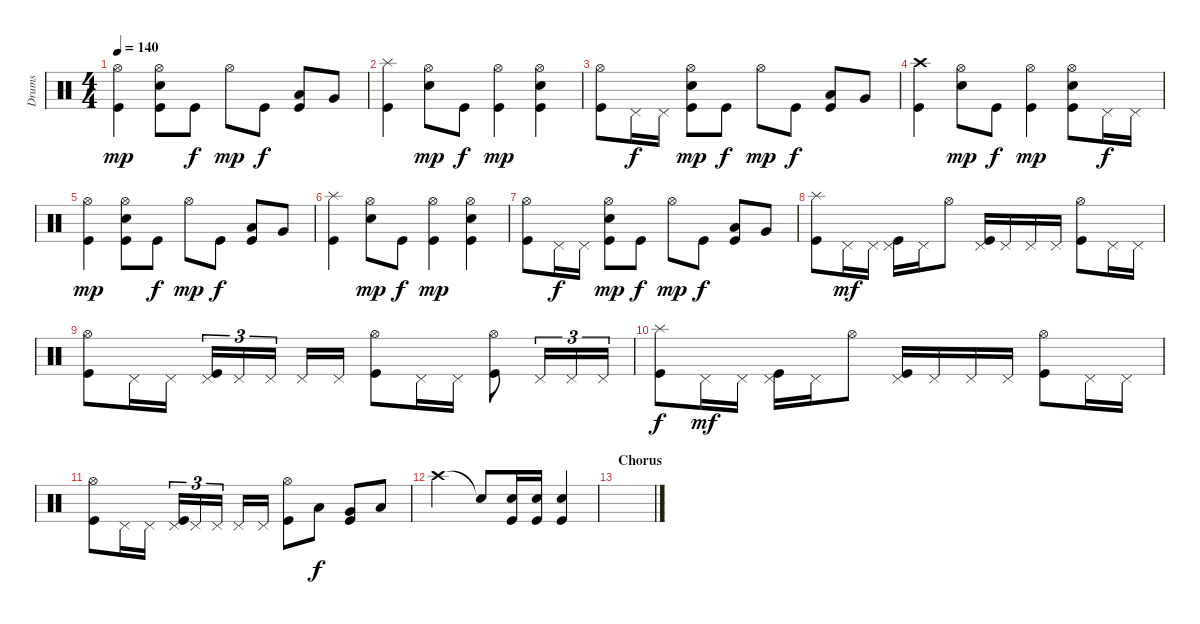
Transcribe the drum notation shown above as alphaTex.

\track ("Drums" "Drums") {instrument percussion}
\staff {score}
\articulation defaults
\ts (4 4)
\tempo 140
\clef neutral
\ks c
("Hi-Hat (open)" "Kick (hit)").4{dy mp} ("Hi-Hat (open)" "Electric Snare (hit)" "Kick (hit)").8 "Kick (hit)".8{dy f} "Hi-Hat (open)".8{dy mp} "Kick (hit)".8{dy f} ("Low Tom (hit)" "Kick (hit)").8 "Very Low Tom (hit)".8 |
("Splash (hit)" "Kick (hit)").4 ("Hi-Hat (open)" "Electric Snare (hit)").8{dy mp} "Kick (hit)".8{dy f} ("Hi-Hat (open)" "Kick (hit)").4{dy mp} ("Hi-Hat (open)" "Electric Snare (hit)" "Kick (hit)").4 |
("Hi-Hat (open)" "Kick (hit)").8 "Pedal Hi-Hat (hit)".16{dy f} "Pedal Hi-Hat (hit)".16 ("Hi-Hat (open)" "Electric Snare (hit)" "Kick (hit)").8{dy mp} "Kick (hit)".8{dy f} "Hi-Hat (open)".8{dy mp} "Kick (hit)".8{dy f} ("Low Tom (hit)" "Kick (hit)").8 "Very Low Tom (hit)".8 |
("Crash high (hit)" "Kick (hit)").4 ("Hi-Hat (open)" "Electric Snare (hit)").8{dy mp} "Kick (hit)".8{dy f} ("Hi-Hat (open)" "Kick (hit)").4{dy mp} ("Hi-Hat (open)" "Electric Snare (hit)" "Kick (hit)").8 "Pedal Hi-Hat (hit)".16{dy f} "Pedal Hi-Hat (hit)".16 |
("Hi-Hat (open)" "Kick (hit)").4{dy mp} ("Hi-Hat (open)" "Electric Snare (hit)" "Kick (hit)").8 "Kick (hit)".8{dy f} "Hi-Hat (open)".8{dy mp} "Kick (hit)".8{dy f} ("Low Tom (hit)" "Kick (hit)").8 "Very Low Tom (hit)".8 |
("Splash (hit)" "Kick (hit)").4 ("Hi-Hat (open)" "Electric Snare (hit)").8{dy mp} "Kick (hit)".8{dy f} ("Hi-Hat (open)" "Kick (hit)").4{dy mp} ("Hi-Hat (open)" "Electric Snare (hit)" "Kick (hit)").4 |
("Hi-Hat (open)" "Kick (hit)").8 "Pedal Hi-Hat (hit)".16{dy f} "Pedal Hi-Hat (hit)".16 ("Hi-Hat (open)" "Electric Snare (hit)" "Kick (hit)").8{dy mp} "Kick (hit)".8{dy f} "Hi-Hat (open)".8{dy mp} "Kick (hit)".8{dy f} ("Low Tom (hit)" "Kick (hit)").8 "Very Low Tom (hit)".8 |
("Splash (hit)" "Kick (hit)").8 "Pedal Hi-Hat (hit)".16{dy mf} "Pedal Hi-Hat (hit)".16 ("Pedal Hi-Hat (hit)" "Kick (hit)").16 "Pedal Hi-Hat (hit)".16 "Hi-Hat (open)".8 ("Pedal Hi-Hat (hit)" "Kick (hit)").16 "Pedal Hi-Hat (hit)".16 "Pedal Hi-Hat (hit)".16 "Pedal Hi-Hat (hit)".16 ("Hi-Hat (open)" "Kick (hit)").8 "Pedal Hi-Hat (hit)".16 "Pedal Hi-Hat (hit)".16 |
("Hi-Hat (open)" "Kick (hit)").8 "Pedal Hi-Hat (hit)".16 "Pedal Hi-Hat (hit)".16 ("Pedal Hi-Hat (hit)" "Kick (hit)").16{tu (3 2)} "Pedal Hi-Hat (hit)".16{tu (3 2)} "Pedal Hi-Hat (hit)".16{tu (3 2)} "Pedal Hi-Hat (hit)".16 "Pedal Hi-Hat (hit)".16 ("Hi-Hat (open)" "Kick (hit)").8 "Pedal Hi-Hat (hit)".16 "Pedal Hi-Hat (hit)".16 ("Hi-Hat (open)" "Kick (hit)").8 "Pedal Hi-Hat (hit)".16{tu (3 2)} "Pedal Hi-Hat (hit)".16{tu (3 2)} "Pedal Hi-Hat (hit)".16{tu (3 2)} |
("Splash (hit)" "Kick (hit)").8{dy f} "Pedal Hi-Hat (hit)".16{dy mf} "Pedal Hi-Hat (hit)".16 ("Pedal Hi-Hat (hit)" "Kick (hit)").16 "Pedal Hi-Hat (hit)".16 "Hi-Hat (open)".8 ("Pedal Hi-Hat (hit)" "Kick (hit)").16 "Pedal Hi-Hat (hit)".16 "Pedal Hi-Hat (hit)".16 "Pedal Hi-Hat (hit)".16 ("Hi-Hat (open)" "Kick (hit)").8 "Pedal Hi-Hat (hit)".16 "Pedal Hi-Hat (hit)".16 |
("Hi-Hat (open)" "Kick (hit)").8 "Pedal Hi-Hat (hit)".16 "Pedal Hi-Hat (hit)".16 ("Pedal Hi-Hat (hit)" "Kick (hit)").16{tu (3 2)} "Pedal Hi-Hat (hit)".16{tu (3 2)} "Pedal Hi-Hat (hit)".16{tu (3 2)} "Pedal Hi-Hat (hit)".16 "Pedal Hi-Hat (hit)".16 ("Hi-Hat (open)" "Kick (hit)").8 "Low Tom (hit)".8{dy f} ("Very Low Tom (hit)" "Kick (hit)").8 "Low Floor Tom (hit)".8 |
"Crash high (hit)".2 "Snare (hit)"{t}.8 ("Snare (hit) 2" "Kick (hit)").16 ("Snare (hit) 2" "Kick (hit)").16 ("Electric Snare (hit)" "Kick (hit)").4 |
\section ("" "Chorus")
